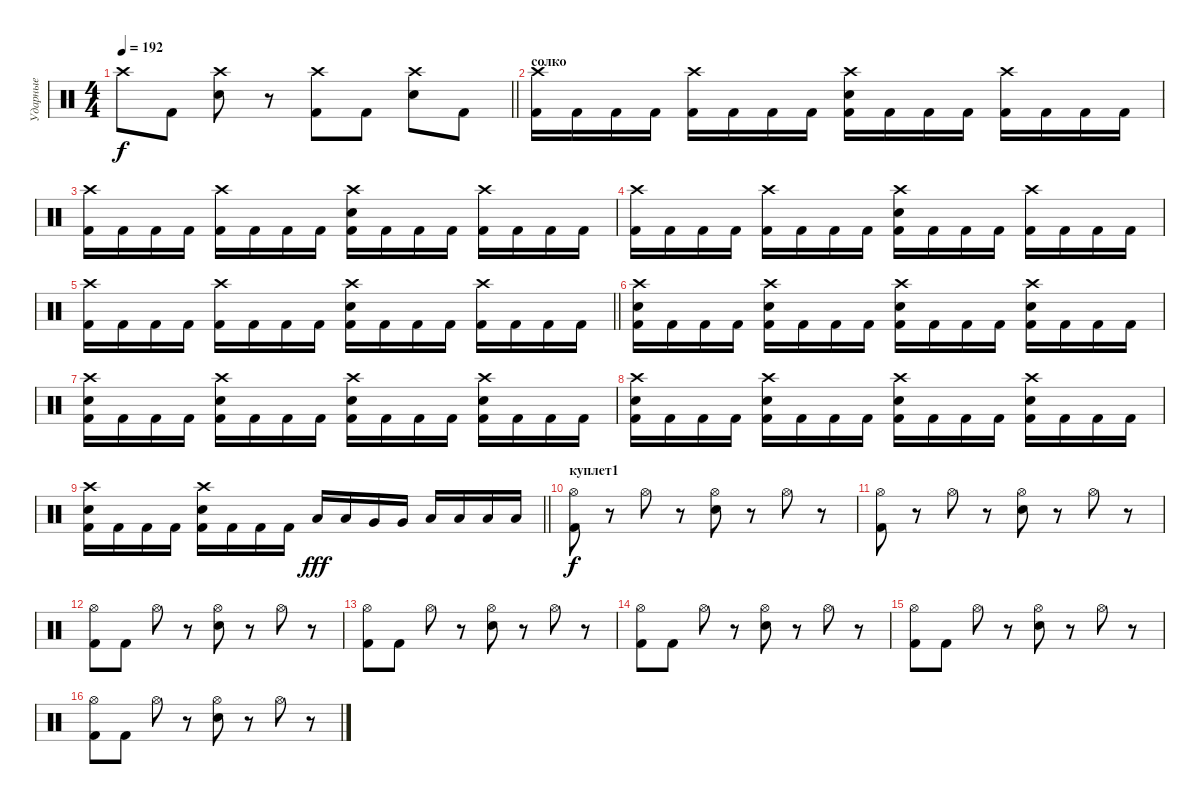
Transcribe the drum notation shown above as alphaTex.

\track ("Ударные" "Ударные") {instrument percussion}
\staff {score}
\articulation defaults
\ts (4 4)
\tempo 192
\clef neutral
\barLineRight lightlight
\ks c "Crash high (hit)".8{dy f} "Kick (hit) 2".8
("Crash high (hit)" "Electric Snare (hit)").8 r.8 ("Crash high (hit)" "Kick (hit) 2").8 "Kick (hit) 2".8 ("Crash high (hit)" "Electric Snare (hit)").8 "Kick (hit) 2".8 |
\section ("" "солко")
("Crash high (hit)" "Kick (hit) 2").16 "Kick (hit) 2".16 "Kick (hit) 2".16 "Kick (hit) 2".16 ("Crash high (hit)" "Kick (hit) 2").16 "Kick (hit) 2".16 "Kick (hit) 2".16 "Kick (hit) 2".16 ("Crash high (hit)" "Electric Snare (hit)" "Kick (hit) 2").16 "Kick (hit) 2".16 "Kick (hit) 2".16 "Kick (hit) 2".16 ("Crash high (hit)" "Kick (hit) 2").16 "Kick (hit) 2".16 "Kick (hit) 2".16 "Kick (hit) 2".16 |
("Crash high (hit)" "Kick (hit) 2").16 "Kick (hit) 2".16 "Kick (hit) 2".16 "Kick (hit) 2".16 ("Crash high (hit)" "Kick (hit) 2").16 "Kick (hit) 2".16 "Kick (hit) 2".16 "Kick (hit) 2".16 ("Crash high (hit)" "Electric Snare (hit)" "Kick (hit) 2").16 "Kick (hit) 2".16 "Kick (hit) 2".16 "Kick (hit) 2".16 ("Crash high (hit)" "Kick (hit) 2").16 "Kick (hit) 2".16 "Kick (hit) 2".16 "Kick (hit) 2".16 |
("Crash high (hit)" "Kick (hit) 2").16 "Kick (hit) 2".16 "Kick (hit) 2".16 "Kick (hit) 2".16 ("Crash high (hit)" "Kick (hit) 2").16 "Kick (hit) 2".16 "Kick (hit) 2".16 "Kick (hit) 2".16 ("Crash high (hit)" "Electric Snare (hit)" "Kick (hit) 2").16 "Kick (hit) 2".16 "Kick (hit) 2".16 "Kick (hit) 2".16 ("Crash high (hit)" "Kick (hit) 2").16 "Kick (hit) 2".16 "Kick (hit) 2".16 "Kick (hit) 2".16 |
\barLineRight lightlight
("Crash high (hit)" "Kick (hit) 2").16 "Kick (hit) 2".16 "Kick (hit) 2".16 "Kick (hit) 2".16 ("Crash high (hit)" "Kick (hit) 2").16 "Kick (hit) 2".16 "Kick (hit) 2".16 "Kick (hit) 2".16 ("Crash high (hit)" "Electric Snare (hit)" "Kick (hit) 2").16 "Kick (hit) 2".16 "Kick (hit) 2".16 "Kick (hit) 2".16 ("Crash high (hit)" "Kick (hit) 2").16 "Kick (hit) 2".16 "Kick (hit) 2".16 "Kick (hit) 2".16 |
("Crash high (hit)" "Electric Snare (hit)" "Kick (hit) 2").16 "Kick (hit) 2".16 "Kick (hit) 2".16 "Kick (hit) 2".16 ("Crash high (hit)" "Electric Snare (hit)" "Kick (hit) 2").16 "Kick (hit) 2".16 "Kick (hit) 2".16 "Kick (hit) 2".16 ("Crash high (hit)" "Electric Snare (hit)" "Kick (hit) 2").16 "Kick (hit) 2".16 "Kick (hit) 2".16 "Kick (hit) 2".16 ("Crash high (hit)" "Electric Snare (hit)" "Kick (hit) 2").16 "Kick (hit) 2".16 "Kick (hit) 2".16 "Kick (hit) 2".16 |
("Crash high (hit)" "Electric Snare (hit)" "Kick (hit) 2").16 "Kick (hit) 2".16 "Kick (hit) 2".16 "Kick (hit) 2".16 ("Crash high (hit)" "Electric Snare (hit)" "Kick (hit) 2").16 "Kick (hit) 2".16 "Kick (hit) 2".16 "Kick (hit) 2".16 ("Crash high (hit)" "Electric Snare (hit)" "Kick (hit) 2").16 "Kick (hit) 2".16 "Kick (hit) 2".16 "Kick (hit) 2".16 ("Crash high (hit)" "Electric Snare (hit)" "Kick (hit) 2").16 "Kick (hit) 2".16 "Kick (hit) 2".16 "Kick (hit) 2".16 |
("Crash high (hit)" "Electric Snare (hit)" "Kick (hit) 2").16 "Kick (hit) 2".16 "Kick (hit) 2".16 "Kick (hit) 2".16 ("Crash high (hit)" "Electric Snare (hit)" "Kick (hit) 2").16 "Kick (hit) 2".16 "Kick (hit) 2".16 "Kick (hit) 2".16 ("Crash high (hit)" "Electric Snare (hit)" "Kick (hit) 2").16 "Kick (hit) 2".16 "Kick (hit) 2".16 "Kick (hit) 2".16 ("Crash high (hit)" "Electric Snare (hit)" "Kick (hit) 2").16 "Kick (hit) 2".16 "Kick (hit) 2".16 "Kick (hit) 2".16 |
\barLineRight lightlight
("Crash high (hit)" "Electric Snare (hit)" "Kick (hit) 2").16 "Kick (hit) 2".16 "Kick (hit) 2".16 "Kick (hit) 2".16 ("Crash high (hit)" "Electric Snare (hit)" "Kick (hit) 2").16 "Kick (hit) 2".16 "Kick (hit) 2".16 "Kick (hit) 2".16 "Low Tom (hit)".16{dy fff} "Low Tom (hit)".16 "Very Low Tom (hit)".16 "Very Low Tom (hit)".16 "Low Floor Tom (hit)".16 "Low Floor Tom (hit)".16 "Low Floor Tom (hit)".16 "Low Floor Tom (hit)".16 |
\section ("" "куплет1")
("Hi-Hat (open)" "Kick (hit) 2").8{dy f} r.8 "Hi-Hat (open)".8 r.8 ("Hi-Hat (open)" "Electric Snare (hit)").8 r.8 "Hi-Hat (open)".8 r.8 |
("Hi-Hat (open)" "Kick (hit) 2").8 r.8 "Hi-Hat (open)".8 r.8 ("Hi-Hat (open)" "Electric Snare (hit)").8 r.8 "Hi-Hat (open)".8 r.8 |
("Hi-Hat (open)" "Kick (hit) 2").8 "Kick (hit) 2".8 "Hi-Hat (open)".8 r.8 ("Hi-Hat (open)" "Electric Snare (hit)").8 r.8 "Hi-Hat (open)".8 r.8 |
("Hi-Hat (open)" "Kick (hit) 2").8 "Kick (hit) 2".8 "Hi-Hat (open)".8 r.8 ("Hi-Hat (open)" "Electric Snare (hit)").8 r.8 "Hi-Hat (open)".8 r.8 |
("Hi-Hat (open)" "Kick (hit) 2").8 "Kick (hit) 2".8 "Hi-Hat (open)".8 r.8 ("Hi-Hat (open)" "Electric Snare (hit)").8 r.8 "Hi-Hat (open)".8 r.8 |
("Hi-Hat (open)" "Kick (hit) 2").8 "Kick (hit) 2".8 "Hi-Hat (open)".8 r.8 ("Hi-Hat (open)" "Electric Snare (hit)").8 r.8 "Hi-Hat (open)".8 r.8 |
("Hi-Hat (open)" "Kick (hit) 2").8 "Kick (hit) 2".8 "Hi-Hat (open)".8 r.8 ("Hi-Hat (open)" "Electric Snare (hit)").8 r.8 "Hi-Hat (open)".8 r.8
